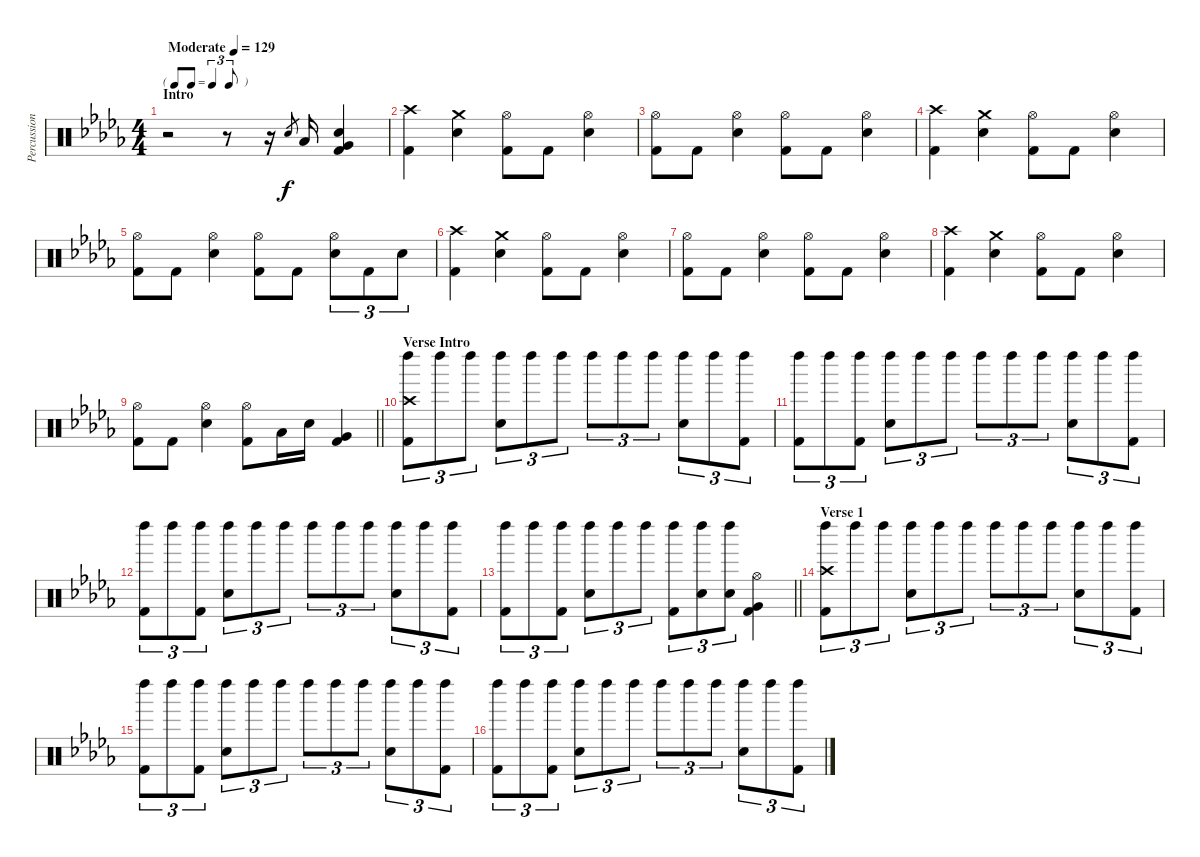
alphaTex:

\track ("Percussion" "Percussion") {instrument percussion}
\staff {score}
\articulation defaults
\ts (4 4)
\tf triplet8th
\section ("" "Intro")
\tempo (129 "Moderate")
\clef neutral
\ks db
r.2{dy f} r.8 r.16 "Electric Snare (hit)".8{gr} "Low Tom (hit)".16 ("Very Low Tom (hit)" "Electric Snare (hit)" "Kick (hit) 2").4 |
("Crash high (hit)" "Kick (hit) 2").4 ("Crash medium (hit)" "Electric Snare (hit)").4 ("Hi-Hat (open)" "Kick (hit) 2").8 "Kick (hit) 2".8 ("Hi-Hat (open)" "Electric Snare (hit)").4 |
("Hi-Hat (open)" "Kick (hit) 2").8 "Kick (hit) 2".8 ("Hi-Hat (open)" "Electric Snare (hit)").4 ("Hi-Hat (open)" "Kick (hit) 2").8 "Kick (hit) 2".8 ("Hi-Hat (open)" "Electric Snare (hit)").4 |
("Crash high (hit)" "Kick (hit) 2").4 ("Crash medium (hit)" "Electric Snare (hit)").4 ("Hi-Hat (open)" "Kick (hit) 2").8 "Kick (hit) 2".8 ("Hi-Hat (open)" "Electric Snare (hit)").4 |
("Hi-Hat (open)" "Kick (hit) 2").8 "Kick (hit) 2".8 ("Hi-Hat (open)" "Electric Snare (hit)").4 ("Hi-Hat (open)" "Kick (hit) 2").8 "Kick (hit) 2".8 ("Hi-Hat (open)" "Electric Snare (hit)").8{tu (3 2)} "Kick (hit) 2".8{tu (3 2)} "Electric Snare (hit)".8{tu (3 2)} |
("Crash high (hit)" "Kick (hit) 2").4 ("Crash medium (hit)" "Electric Snare (hit)").4 ("Hi-Hat (open)" "Kick (hit) 2").8 "Kick (hit) 2".8 ("Hi-Hat (open)" "Electric Snare (hit)").4 |
("Hi-Hat (open)" "Kick (hit) 2").8 "Kick (hit) 2".8 ("Hi-Hat (open)" "Electric Snare (hit)").4 ("Hi-Hat (open)" "Kick (hit) 2").8 "Kick (hit) 2".8 ("Hi-Hat (open)" "Electric Snare (hit)").4 |
("Crash high (hit)" "Kick (hit) 2").4 ("Crash medium (hit)" "Electric Snare (hit)").4 ("Hi-Hat (open)" "Kick (hit) 2").8 "Kick (hit) 2".8 ("Hi-Hat (open)" "Electric Snare (hit)").4 |
\barLineRight lightlight
("Hi-Hat (open)" "Kick (hit) 2").8 "Kick (hit) 2".8 ("Hi-Hat (open)" "Electric Snare (hit)").4 ("Hi-Hat (open)" "Kick (hit) 2").8 "Low Tom (hit)".16 "Electric Snare (hit)".16 ("Very Low Tom (hit)" "Kick (hit) 2").4 |
\section ("" "Verse Intro")
("Left Maraca (hit)" "Crash high (hit)" "Kick (hit) 2").8{tu (3 2)} "Left Maraca (hit)".8{tu (3 2)} "Left Maraca (hit)".8{tu (3 2)} ("Left Maraca (hit)" "Electric Snare (hit)").8{tu (3 2)} "Left Maraca (hit)".8{tu (3 2)} "Left Maraca (hit)".8{tu (3 2)} "Left Maraca (hit)".8{tu (3 2)} "Left Maraca (hit)".8{tu (3 2)} "Left Maraca (hit)".8{tu (3 2)} ("Left Maraca (hit)" "Electric Snare (hit)").8{tu (3 2)} "Left Maraca (hit)".8{tu (3 2)} ("Left Maraca (hit)" "Kick (hit) 2").8{tu (3 2)} |
("Left Maraca (hit)" "Kick (hit) 2").8{tu (3 2)} "Left Maraca (hit)".8{tu (3 2)} ("Left Maraca (hit)" "Kick (hit) 2").8{tu (3 2)} ("Left Maraca (hit)" "Electric Snare (hit)").8{tu (3 2)} "Left Maraca (hit)".8{tu (3 2)} "Left Maraca (hit)".8{tu (3 2)} "Left Maraca (hit)".8{tu (3 2)} "Left Maraca (hit)".8{tu (3 2)} "Left Maraca (hit)".8{tu (3 2)} ("Left Maraca (hit)" "Electric Snare (hit)").8{tu (3 2)} "Left Maraca (hit)".8{tu (3 2)} ("Left Maraca (hit)" "Kick (hit) 2").8{tu (3 2)} |
("Left Maraca (hit)" "Kick (hit) 2").8{tu (3 2)} "Left Maraca (hit)".8{tu (3 2)} ("Left Maraca (hit)" "Kick (hit) 2").8{tu (3 2)} ("Left Maraca (hit)" "Electric Snare (hit)").8{tu (3 2)} "Left Maraca (hit)".8{tu (3 2)} "Left Maraca (hit)".8{tu (3 2)} "Left Maraca (hit)".8{tu (3 2)} "Left Maraca (hit)".8{tu (3 2)} "Left Maraca (hit)".8{tu (3 2)} ("Left Maraca (hit)" "Electric Snare (hit)").8{tu (3 2)} "Left Maraca (hit)".8{tu (3 2)} ("Left Maraca (hit)" "Kick (hit) 2").8{tu (3 2)} |
\barLineRight lightlight
("Left Maraca (hit)" "Kick (hit) 2").8{tu (3 2)} "Left Maraca (hit)".8{tu (3 2)} ("Left Maraca (hit)" "Kick (hit) 2").8{tu (3 2)} ("Left Maraca (hit)" "Electric Snare (hit)").8{tu (3 2)} "Left Maraca (hit)".8{tu (3 2)} "Left Maraca (hit)".8{tu (3 2)} ("Left Maraca (hit)" "Kick (hit) 2").8{tu (3 2)} ("Left Maraca (hit)" "Electric Snare (hit)").8{tu (3 2)} ("Left Maraca (hit)" "Electric Snare (hit)").8{tu (3 2)} ("Hi-Hat (open)" "Very Low Tom (hit)" "Kick (hit) 2").4 |
\section ("" "Verse 1")
("Left Maraca (hit)" "Crash high (hit)" "Kick (hit) 2").8{tu (3 2)} "Left Maraca (hit)".8{tu (3 2)} "Left Maraca (hit)".8{tu (3 2)} ("Left Maraca (hit)" "Electric Snare (hit)").8{tu (3 2)} "Left Maraca (hit)".8{tu (3 2)} "Left Maraca (hit)".8{tu (3 2)} "Left Maraca (hit)".8{tu (3 2)} "Left Maraca (hit)".8{tu (3 2)} "Left Maraca (hit)".8{tu (3 2)} ("Left Maraca (hit)" "Electric Snare (hit)").8{tu (3 2)} "Left Maraca (hit)".8{tu (3 2)} ("Left Maraca (hit)" "Kick (hit) 2").8{tu (3 2)} |
("Left Maraca (hit)" "Kick (hit) 2").8{tu (3 2)} "Left Maraca (hit)".8{tu (3 2)} ("Left Maraca (hit)" "Kick (hit) 2").8{tu (3 2)} ("Left Maraca (hit)" "Electric Snare (hit)").8{tu (3 2)} "Left Maraca (hit)".8{tu (3 2)} "Left Maraca (hit)".8{tu (3 2)} "Left Maraca (hit)".8{tu (3 2)} "Left Maraca (hit)".8{tu (3 2)} "Left Maraca (hit)".8{tu (3 2)} ("Left Maraca (hit)" "Electric Snare (hit)").8{tu (3 2)} "Left Maraca (hit)".8{tu (3 2)} ("Left Maraca (hit)" "Kick (hit) 2").8{tu (3 2)} |
("Left Maraca (hit)" "Kick (hit) 2").8{tu (3 2)} "Left Maraca (hit)".8{tu (3 2)} ("Left Maraca (hit)" "Kick (hit) 2").8{tu (3 2)} ("Left Maraca (hit)" "Electric Snare (hit)").8{tu (3 2)} "Left Maraca (hit)".8{tu (3 2)} "Left Maraca (hit)".8{tu (3 2)} "Left Maraca (hit)".8{tu (3 2)} "Left Maraca (hit)".8{tu (3 2)} "Left Maraca (hit)".8{tu (3 2)} ("Left Maraca (hit)" "Electric Snare (hit)").8{tu (3 2)} "Left Maraca (hit)".8{tu (3 2)} ("Left Maraca (hit)" "Kick (hit) 2").8{tu (3 2)}
